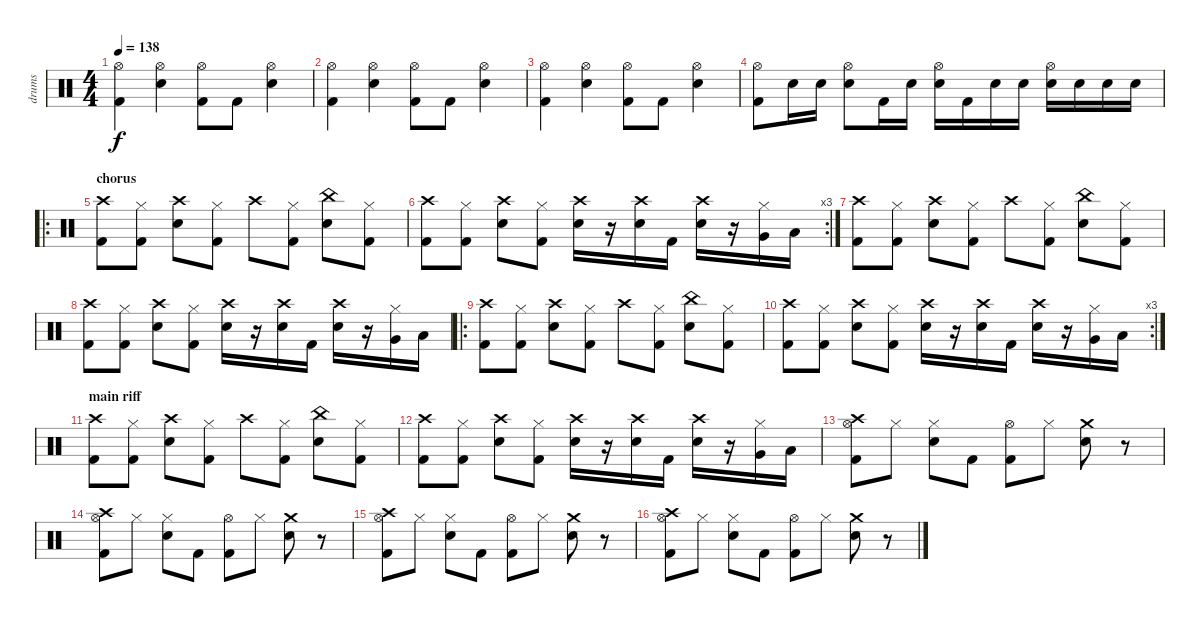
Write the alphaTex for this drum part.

\track ("drums" "drums") {instrument percussion}
\staff {score}
\articulation defaults
\ts (4 4)
\tempo 138
\clef neutral
\ks c
("Hi-Hat (open)" "Kick (hit) 2").4{dy f} ("Hi-Hat (open)" "Electric Snare (hit)").4 ("Hi-Hat (open)" "Kick (hit) 2").8 "Kick (hit) 2".8 ("Hi-Hat (open)" "Electric Snare (hit)").4 |
("Hi-Hat (open)" "Kick (hit) 2").4 ("Hi-Hat (open)" "Electric Snare (hit)").4 ("Hi-Hat (open)" "Kick (hit) 2").8 "Kick (hit) 2".8 ("Hi-Hat (open)" "Electric Snare (hit)").4 |
("Hi-Hat (open)" "Kick (hit) 2").4 ("Hi-Hat (open)" "Electric Snare (hit)").4 ("Hi-Hat (open)" "Kick (hit) 2").8 "Kick (hit) 2".8 ("Hi-Hat (open)" "Electric Snare (hit)").4 |
("Hi-Hat (open)" "Kick (hit) 2").8 "Electric Snare (hit)".16 "Electric Snare (hit)".16 ("Hi-Hat (open)" "Electric Snare (hit)").8 "Kick (hit) 2".16 "Electric Snare (hit)".16 ("Hi-Hat (open)" "Electric Snare (hit)").16 "Kick (hit) 2".16 "Electric Snare (hit)".16 "Electric Snare (hit)".16 ("Hi-Hat (open)" "Electric Snare (hit)").16 "Electric Snare (hit)".16 "Electric Snare (hit)".16 "Electric Snare (hit)".16 |
\ro
\section ("" "chorus")
("Crash high (hit)" "Kick (hit) 2").8 ("Hi-Hat (closed)" "Kick (hit) 2").8 ("Crash high (hit)" "Electric Snare (hit)").8 ("Hi-Hat (closed)" "Kick (hit) 2").8 "Crash high (hit)".8 ("Hi-Hat (closed)" "Kick (hit) 2").8 ("China (hit)" "Electric Snare (hit)").8 ("Hi-Hat (closed)" "Kick (hit) 2").8 |
\rc 3
("Crash high (hit)" "Kick (hit) 2").8 ("Hi-Hat (closed)" "Kick (hit) 2").8 ("Crash high (hit)" "Electric Snare (hit)").8 ("Hi-Hat (closed)" "Kick (hit) 2").8 ("Crash high (hit)" "Electric Snare (hit)").16 r.16 ("Crash high (hit)" "Electric Snare (hit)").16 "Kick (hit) 2".16 ("Crash high (hit)" "Electric Snare (hit)").16 r.16 ("Hi-Hat (closed)" "Very Low Tom (hit)").16 "Low Floor Tom (hit)".16 |
("Crash high (hit)" "Kick (hit) 2").8 ("Hi-Hat (closed)" "Kick (hit) 2").8 ("Crash high (hit)" "Electric Snare (hit)").8 ("Hi-Hat (closed)" "Kick (hit) 2").8 "Crash high (hit)".8 ("Hi-Hat (closed)" "Kick (hit) 2").8 ("China (hit)" "Electric Snare (hit)").8 ("Hi-Hat (closed)" "Kick (hit) 2").8 |
("Crash high (hit)" "Kick (hit) 2").8 ("Hi-Hat (closed)" "Kick (hit) 2").8 ("Crash high (hit)" "Electric Snare (hit)").8 ("Hi-Hat (closed)" "Kick (hit) 2").8 ("Crash high (hit)" "Electric Snare (hit)").16 r.16 ("Crash high (hit)" "Electric Snare (hit)").16 "Kick (hit) 2".16 ("Crash high (hit)" "Electric Snare (hit)").16 r.16 ("Hi-Hat (closed)" "Very Low Tom (hit)").16 "Low Floor Tom (hit)".16 |
\ro
("Crash high (hit)" "Kick (hit) 2").8 ("Hi-Hat (closed)" "Kick (hit) 2").8 ("Crash high (hit)" "Electric Snare (hit)").8 ("Hi-Hat (closed)" "Kick (hit) 2").8 "Crash high (hit)".8 ("Hi-Hat (closed)" "Kick (hit) 2").8 ("China (hit)" "Electric Snare (hit)").8 ("Hi-Hat (closed)" "Kick (hit) 2").8 |
\rc 3
("Crash high (hit)" "Kick (hit) 2").8 ("Hi-Hat (closed)" "Kick (hit) 2").8 ("Crash high (hit)" "Electric Snare (hit)").8 ("Hi-Hat (closed)" "Kick (hit) 2").8 ("Crash high (hit)" "Electric Snare (hit)").16 r.16 ("Crash high (hit)" "Electric Snare (hit)").16 "Kick (hit) 2".16 ("Crash high (hit)" "Electric Snare (hit)").16 r.16 ("Hi-Hat (closed)" "Very Low Tom (hit)").16 "Low Floor Tom (hit)".16 |
\section ("" "main riff")
("Crash high (hit)" "Kick (hit) 2").8 ("Hi-Hat (closed)" "Kick (hit) 2").8 ("Crash high (hit)" "Electric Snare (hit)").8 ("Hi-Hat (closed)" "Kick (hit) 2").8 "Crash high (hit)".8 ("Hi-Hat (closed)" "Kick (hit) 2").8 ("China (hit)" "Electric Snare (hit)").8 ("Hi-Hat (closed)" "Kick (hit) 2").8 |
("Crash high (hit)" "Kick (hit) 2").8 ("Hi-Hat (closed)" "Kick (hit) 2").8 ("Crash high (hit)" "Electric Snare (hit)").8 ("Hi-Hat (closed)" "Kick (hit) 2").8 ("Crash high (hit)" "Electric Snare (hit)").16 r.16 ("Crash high (hit)" "Electric Snare (hit)").16 "Kick (hit) 2".16 ("Crash high (hit)" "Electric Snare (hit)").16 r.16 ("Hi-Hat (closed)" "Very Low Tom (hit)").16 "Low Floor Tom (hit)".16 |
("Crash high (hit)" "Hi-Hat (open)" "Kick (hit) 2").8 "Hi-Hat (closed)".8 ("Hi-Hat (closed)" "Electric Snare (hit)").8 "Kick (hit) 2".8 ("Hi-Hat (open)" "Kick (hit) 2").8 "Hi-Hat (closed)".8 ("Crash medium (hit)" "Electric Snare (hit)").8 r.8 |
("Crash high (hit)" "Hi-Hat (open)" "Kick (hit) 2").8 "Hi-Hat (closed)".8 ("Hi-Hat (closed)" "Electric Snare (hit)").8 "Kick (hit) 2".8 ("Hi-Hat (open)" "Kick (hit) 2").8 "Hi-Hat (closed)".8 ("Crash medium (hit)" "Electric Snare (hit)").8 r.8 |
("Crash high (hit)" "Hi-Hat (open)" "Kick (hit) 2").8 "Hi-Hat (closed)".8 ("Hi-Hat (closed)" "Electric Snare (hit)").8 "Kick (hit) 2".8 ("Hi-Hat (open)" "Kick (hit) 2").8 "Hi-Hat (closed)".8 ("Crash medium (hit)" "Electric Snare (hit)").8 r.8 |
("Crash high (hit)" "Hi-Hat (open)" "Kick (hit) 2").8 "Hi-Hat (closed)".8 ("Hi-Hat (closed)" "Electric Snare (hit)").8 "Kick (hit) 2".8 ("Hi-Hat (open)" "Kick (hit) 2").8 "Hi-Hat (closed)".8 ("Crash medium (hit)" "Electric Snare (hit)").8 r.8
